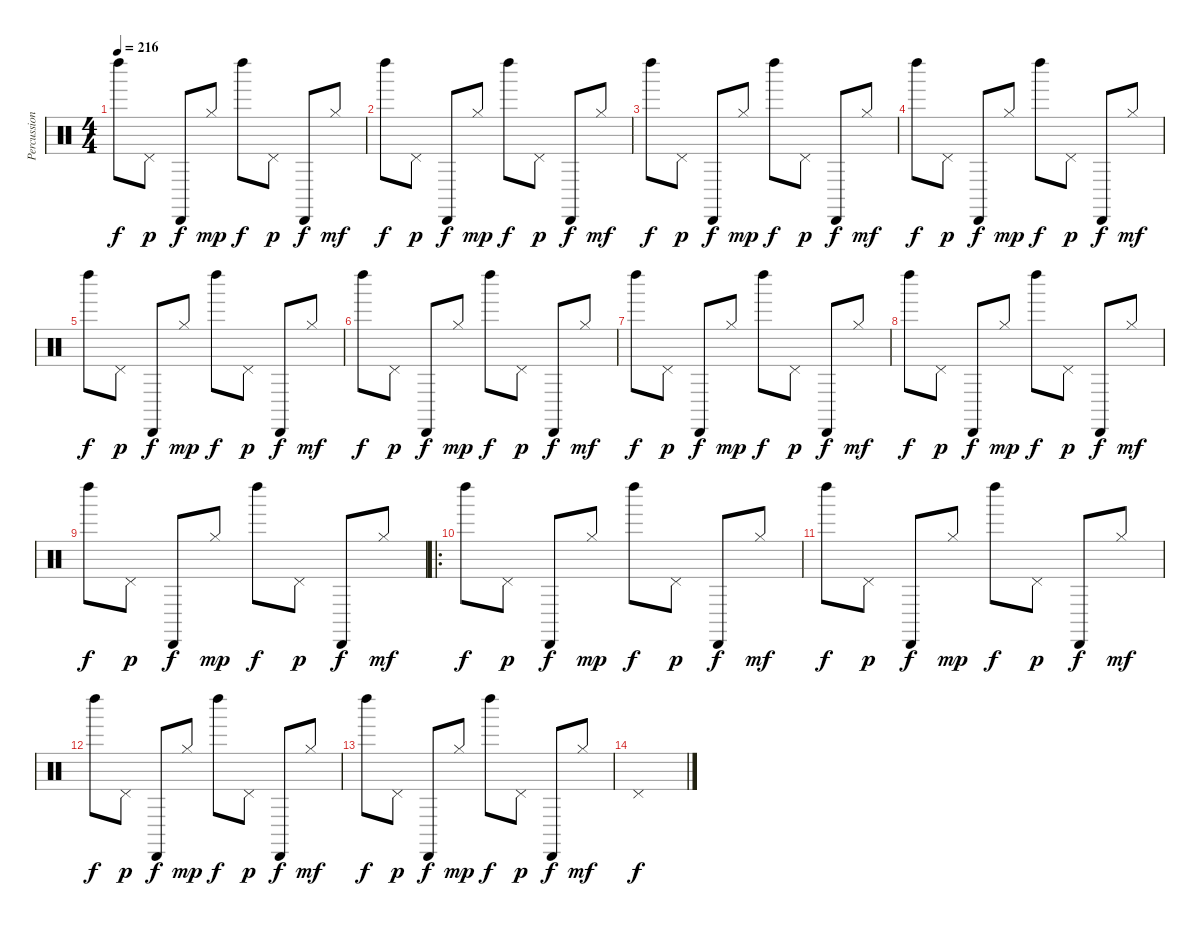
\track ("Percussions" "Percussion") {instrument percussion}
\staff {score}
\articulation defaults
\ts (4 4)
\tempo 216
\clef neutral
\ks c "Left Maraca (hit)".8{dy f} "Pedal Hi-Hat (hit)".8{dy p} "Cabasa (hit)".8{dy f} "Hi-Hat (closed)".8{dy mp} "Left Maraca (hit)".8{dy f} "Pedal Hi-Hat (hit)".8{dy p} "Cabasa (hit)".8{dy f} "Hi-Hat (closed)".8{dy mf}
|
"Left Maraca (hit)".8{dy f} "Pedal Hi-Hat (hit)".8{dy p} "Cabasa (hit)".8{dy f} "Hi-Hat (closed)".8{dy mp} "Left Maraca (hit)".8{dy f} "Pedal Hi-Hat (hit)".8{dy p} "Cabasa (hit)".8{dy f} "Hi-Hat (closed)".8{dy mf} |
"Left Maraca (hit)".8{dy f} "Pedal Hi-Hat (hit)".8{dy p} "Cabasa (hit)".8{dy f} "Hi-Hat (closed)".8{dy mp} "Left Maraca (hit)".8{dy f} "Pedal Hi-Hat (hit)".8{dy p} "Cabasa (hit)".8{dy f} "Hi-Hat (closed)".8{dy mf} |
"Left Maraca (hit)".8{dy f} "Pedal Hi-Hat (hit)".8{dy p} "Cabasa (hit)".8{dy f} "Hi-Hat (closed)".8{dy mp} "Left Maraca (hit)".8{dy f} "Pedal Hi-Hat (hit)".8{dy p} "Cabasa (hit)".8{dy f} "Hi-Hat (closed)".8{dy mf} |
"Left Maraca (hit)".8{dy f} "Pedal Hi-Hat (hit)".8{dy p} "Cabasa (hit)".8{dy f} "Hi-Hat (closed)".8{dy mp} "Left Maraca (hit)".8{dy f} "Pedal Hi-Hat (hit)".8{dy p} "Cabasa (hit)".8{dy f} "Hi-Hat (closed)".8{dy mf} |
"Left Maraca (hit)".8{dy f} "Pedal Hi-Hat (hit)".8{dy p} "Cabasa (hit)".8{dy f} "Hi-Hat (closed)".8{dy mp} "Left Maraca (hit)".8{dy f} "Pedal Hi-Hat (hit)".8{dy p} "Cabasa (hit)".8{dy f} "Hi-Hat (closed)".8{dy mf} |
"Left Maraca (hit)".8{dy f} "Pedal Hi-Hat (hit)".8{dy p} "Cabasa (hit)".8{dy f} "Hi-Hat (closed)".8{dy mp} "Left Maraca (hit)".8{dy f} "Pedal Hi-Hat (hit)".8{dy p} "Cabasa (hit)".8{dy f} "Hi-Hat (closed)".8{dy mf} |
"Left Maraca (hit)".8{dy f} "Pedal Hi-Hat (hit)".8{dy p} "Cabasa (hit)".8{dy f} "Hi-Hat (closed)".8{dy mp} "Left Maraca (hit)".8{dy f} "Pedal Hi-Hat (hit)".8{dy p} "Cabasa (hit)".8{dy f} "Hi-Hat (closed)".8{dy mf} |
"Left Maraca (hit)".8{dy f} "Pedal Hi-Hat (hit)".8{dy p} "Cabasa (hit)".8{dy f} "Hi-Hat (closed)".8{dy mp} "Left Maraca (hit)".8{dy f} "Pedal Hi-Hat (hit)".8{dy p} "Cabasa (hit)".8{dy f} "Hi-Hat (closed)".8{dy mf} |
\ro "Left Maraca (hit)".8{dy f} "Pedal Hi-Hat (hit)".8{dy p} "Cabasa (hit)".8{dy f} "Hi-Hat (closed)".8{dy mp} "Left Maraca (hit)".8{dy f} "Pedal Hi-Hat (hit)".8{dy p} "Cabasa (hit)".8{dy f} "Hi-Hat (closed)".8{dy mf}
|
"Left Maraca (hit)".8{dy f} "Pedal Hi-Hat (hit)".8{dy p} "Cabasa (hit)".8{dy f} "Hi-Hat (closed)".8{dy mp} "Left Maraca (hit)".8{dy f} "Pedal Hi-Hat (hit)".8{dy p} "Cabasa (hit)".8{dy f} "Hi-Hat (closed)".8{dy mf} |
"Left Maraca (hit)".8{dy f} "Pedal Hi-Hat (hit)".8{dy p} "Cabasa (hit)".8{dy f} "Hi-Hat (closed)".8{dy mp} "Left Maraca (hit)".8{dy f} "Pedal Hi-Hat (hit)".8{dy p} "Cabasa (hit)".8{dy f} "Hi-Hat (closed)".8{dy mf} |
"Left Maraca (hit)".8{dy f} "Pedal Hi-Hat (hit)".8{dy p} "Cabasa (hit)".8{dy f} "Hi-Hat (closed)".8{dy mp} "Left Maraca (hit)".8{dy f} "Pedal Hi-Hat (hit)".8{dy p} "Cabasa (hit)".8{dy f} "Hi-Hat (closed)".8{dy mf} |
"Pedal Hi-Hat (hit)".1{dy f}
